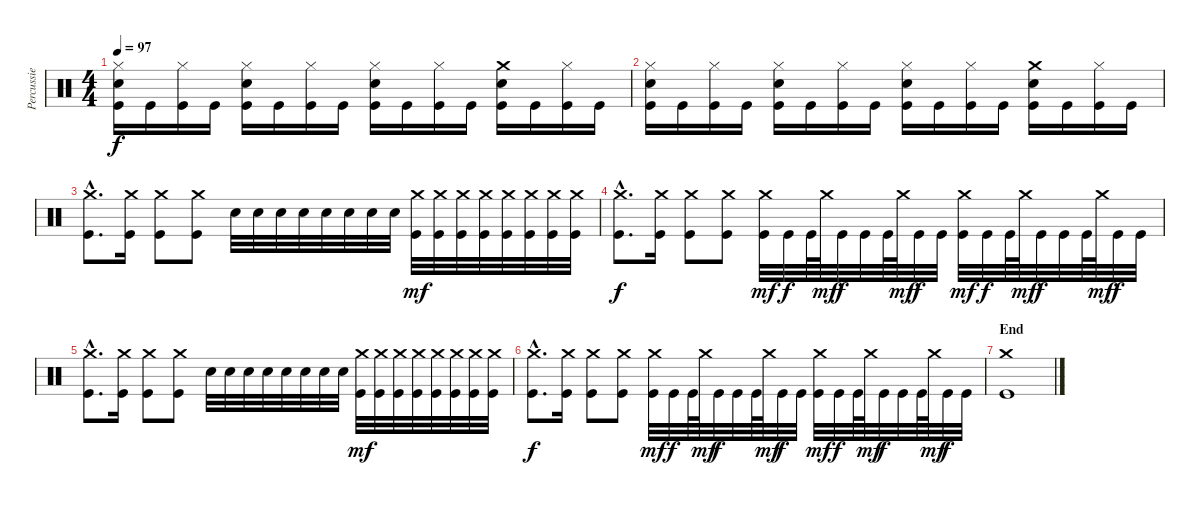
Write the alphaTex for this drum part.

\track ("Percussie" "Percussie") {instrument percussion}
\staff {score}
\articulation defaults
\ts (4 4)
\tempo 97
\clef neutral
\ks c
("Hi-Hat (closed)" "Electric Snare (hit)" "Kick (hit)").16{dy f} "Kick (hit)".16 ("Hi-Hat (closed)" "Kick (hit)").16 "Kick (hit)".16 ("Hi-Hat (closed)" "Electric Snare (hit)" "Kick (hit)").16 "Kick (hit)".16 ("Hi-Hat (closed)" "Kick (hit)").16 "Kick (hit)".16 ("Hi-Hat (closed)" "Electric Snare (hit)" "Kick (hit)").16 "Kick (hit)".16 ("Hi-Hat (closed)" "Kick (hit)").16 "Kick (hit)".16 ("Crash medium (hit)" "Electric Snare (hit)" "Kick (hit)").16 "Kick (hit)".16 ("Hi-Hat (closed)" "Kick (hit)").16 "Kick (hit)".16 |
("Hi-Hat (closed)" "Electric Snare (hit)" "Kick (hit)").16 "Kick (hit)".16 ("Hi-Hat (closed)" "Kick (hit)").16 "Kick (hit)".16 ("Hi-Hat (closed)" "Electric Snare (hit)" "Kick (hit)").16 "Kick (hit)".16 ("Hi-Hat (closed)" "Kick (hit)").16 "Kick (hit)".16 ("Hi-Hat (closed)" "Electric Snare (hit)" "Kick (hit)").16 "Kick (hit)".16 ("Hi-Hat (closed)" "Kick (hit)").16 "Kick (hit)".16 ("Crash medium (hit)" "Electric Snare (hit)" "Kick (hit)").16 "Kick (hit)".16 ("Hi-Hat (closed)" "Kick (hit)").16 "Kick (hit)".16 |
("Crash medium (hit)"{hac} "Kick (hit)"{hac}).8{d} ("Crash medium (hit)" "Kick (hit)").16 ("Crash medium (hit)" "Kick (hit)").8 ("Crash medium (hit)" "Kick (hit)").8 "Electric Snare (hit)".32 "Electric Snare (hit)".32 "Electric Snare (hit)".32 "Electric Snare (hit)".32 "Electric Snare (hit)".32 "Electric Snare (hit)".32 "Electric Snare (hit)".32 "Electric Snare (hit)".32 ("Crash medium (hit)" "Kick (hit)").32{dy mf} ("Crash medium (hit)" "Kick (hit)").32 ("Crash medium (hit)" "Kick (hit)").32 ("Crash medium (hit)" "Kick (hit)").32 ("Crash medium (hit)" "Kick (hit)").32 ("Crash medium (hit)" "Kick (hit)").32 ("Crash medium (hit)" "Kick (hit)").32 ("Crash medium (hit)" "Kick (hit)").32 |
("Crash medium (hit)"{hac} "Kick (hit)"{hac}).8{d dy f} ("Crash medium (hit)" "Kick (hit)").16 ("Crash medium (hit)" "Kick (hit)").8 ("Crash medium (hit)" "Kick (hit)").8 ("Crash medium (hit)" "Kick (hit)").32{dy mf} "Kick (hit)".32{dy f} "Kick (hit)".64 "Crash medium (hit)".64{dy mf} "Kick (hit)".32{dy f} "Kick (hit)".32 "Kick (hit)".64 "Crash medium (hit)".64{dy mf} "Kick (hit)".32{dy f} "Kick (hit)".32 ("Crash medium (hit)" "Kick (hit)").32{dy mf} "Kick (hit)".32{dy f} "Kick (hit)".64 "Crash medium (hit)".64{dy mf} "Kick (hit)".32{dy f} "Kick (hit)".32 "Kick (hit)".64 "Crash medium (hit)".64{dy mf} "Kick (hit)".32{dy f} "Kick (hit)".32 |
("Crash medium (hit)"{hac} "Kick (hit)"{hac}).8{d} ("Crash medium (hit)" "Kick (hit)").16 ("Crash medium (hit)" "Kick (hit)").8 ("Crash medium (hit)" "Kick (hit)").8 "Electric Snare (hit)".32 "Electric Snare (hit)".32 "Electric Snare (hit)".32 "Electric Snare (hit)".32 "Electric Snare (hit)".32 "Electric Snare (hit)".32 "Electric Snare (hit)".32 "Electric Snare (hit)".32 ("Crash medium (hit)" "Kick (hit)").32{dy mf} ("Crash medium (hit)" "Kick (hit)").32 ("Crash medium (hit)" "Kick (hit)").32 ("Crash medium (hit)" "Kick (hit)").32 ("Crash medium (hit)" "Kick (hit)").32 ("Crash medium (hit)" "Kick (hit)").32 ("Crash medium (hit)" "Kick (hit)").32 ("Crash medium (hit)" "Kick (hit)").32 |
("Crash medium (hit)"{hac} "Kick (hit)"{hac}).8{d dy f} ("Crash medium (hit)" "Kick (hit)").16 ("Crash medium (hit)" "Kick (hit)").8 ("Crash medium (hit)" "Kick (hit)").8 ("Crash medium (hit)" "Kick (hit)").32{dy mf} "Kick (hit)".32{dy f} "Kick (hit)".64 "Crash medium (hit)".64{dy mf} "Kick (hit)".32{dy f} "Kick (hit)".32 "Kick (hit)".64 "Crash medium (hit)".64{dy mf} "Kick (hit)".32{dy f} "Kick (hit)".32 ("Crash medium (hit)" "Kick (hit)").32{dy mf} "Kick (hit)".32{dy f} "Kick (hit)".64 "Crash medium (hit)".64{dy mf} "Kick (hit)".32{dy f} "Kick (hit)".32 "Kick (hit)".64 "Crash medium (hit)".64{dy mf} "Kick (hit)".32{dy f} "Kick (hit)".32 |
\section ("" "End")
("Crash medium (hit)" "Kick (hit)").1
